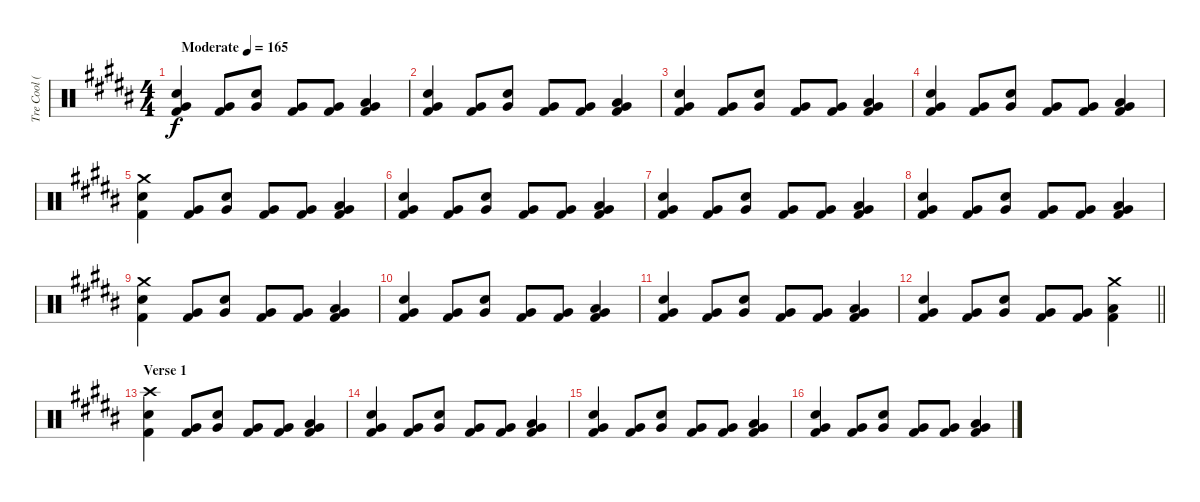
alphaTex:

\track ("Tre Cool (Drums)" "Tre Cool (") {instrument percussion}
\staff {score}
\articulation defaults
\ts (4 4)
\tempo (165 "Moderate")
\clef neutral
\ks b
("Very Low Tom (hit)" "Electric Snare (hit)" "Kick (hit) 2").4{dy f} ("Very Low Tom (hit)" "Kick (hit) 2").8 ("Very Low Tom (hit)" "Electric Snare (hit)").8 ("Very Low Tom (hit)" "Kick (hit) 2").8 ("Very Low Tom (hit)" "Kick (hit) 2").8 ("Very Low Tom (hit)" "Low Tom (hit)" "Kick (hit) 2").4 |
("Very Low Tom (hit)" "Electric Snare (hit)" "Kick (hit) 2").4 ("Very Low Tom (hit)" "Kick (hit) 2").8 ("Very Low Tom (hit)" "Electric Snare (hit)").8 ("Very Low Tom (hit)" "Kick (hit) 2").8 ("Very Low Tom (hit)" "Kick (hit) 2").8 ("Very Low Tom (hit)" "Low Tom (hit)" "Kick (hit) 2").4 |
("Very Low Tom (hit)" "Electric Snare (hit)" "Kick (hit) 2").4 ("Very Low Tom (hit)" "Kick (hit) 2").8 ("Very Low Tom (hit)" "Electric Snare (hit)").8 ("Very Low Tom (hit)" "Kick (hit) 2").8 ("Very Low Tom (hit)" "Kick (hit) 2").8 ("Very Low Tom (hit)" "Low Tom (hit)" "Kick (hit) 2").4 |
("Very Low Tom (hit)" "Electric Snare (hit)" "Kick (hit) 2").4 ("Very Low Tom (hit)" "Kick (hit) 2").8 ("Very Low Tom (hit)" "Electric Snare (hit)").8 ("Very Low Tom (hit)" "Kick (hit) 2").8 ("Very Low Tom (hit)" "Kick (hit) 2").8 ("Very Low Tom (hit)" "Low Tom (hit)" "Kick (hit) 2").4 |
("Crash medium (hit)" "Electric Snare (hit)" "Kick (hit) 2").4 ("Very Low Tom (hit)" "Kick (hit) 2").8 ("Very Low Tom (hit)" "Electric Snare (hit)").8 ("Very Low Tom (hit)" "Kick (hit) 2").8 ("Very Low Tom (hit)" "Kick (hit) 2").8 ("Very Low Tom (hit)" "Low Tom (hit)" "Kick (hit) 2").4 |
("Very Low Tom (hit)" "Electric Snare (hit)" "Kick (hit) 2").4 ("Very Low Tom (hit)" "Kick (hit) 2").8 ("Very Low Tom (hit)" "Electric Snare (hit)").8 ("Very Low Tom (hit)" "Kick (hit) 2").8 ("Very Low Tom (hit)" "Kick (hit) 2").8 ("Very Low Tom (hit)" "Low Tom (hit)" "Kick (hit) 2").4 |
("Very Low Tom (hit)" "Electric Snare (hit)" "Kick (hit) 2").4 ("Very Low Tom (hit)" "Kick (hit) 2").8 ("Very Low Tom (hit)" "Electric Snare (hit)").8 ("Very Low Tom (hit)" "Kick (hit) 2").8 ("Very Low Tom (hit)" "Kick (hit) 2").8 ("Very Low Tom (hit)" "Low Tom (hit)" "Kick (hit) 2").4 |
("Very Low Tom (hit)" "Electric Snare (hit)" "Kick (hit) 2").4 ("Very Low Tom (hit)" "Kick (hit) 2").8 ("Very Low Tom (hit)" "Electric Snare (hit)").8 ("Very Low Tom (hit)" "Kick (hit) 2").8 ("Very Low Tom (hit)" "Kick (hit) 2").8 ("Very Low Tom (hit)" "Low Tom (hit)" "Kick (hit) 2").4 |
("Crash medium (hit)" "Electric Snare (hit)" "Kick (hit) 2").4 ("Very Low Tom (hit)" "Kick (hit) 2").8 ("Very Low Tom (hit)" "Electric Snare (hit)").8 ("Very Low Tom (hit)" "Kick (hit) 2").8 ("Very Low Tom (hit)" "Kick (hit) 2").8 ("Very Low Tom (hit)" "Low Tom (hit)" "Kick (hit) 2").4 |
("Very Low Tom (hit)" "Electric Snare (hit)" "Kick (hit) 2").4 ("Very Low Tom (hit)" "Kick (hit) 2").8 ("Very Low Tom (hit)" "Electric Snare (hit)").8 ("Very Low Tom (hit)" "Kick (hit) 2").8 ("Very Low Tom (hit)" "Kick (hit) 2").8 ("Very Low Tom (hit)" "Low Tom (hit)" "Kick (hit) 2").4 |
("Very Low Tom (hit)" "Electric Snare (hit)" "Kick (hit) 2").4 ("Very Low Tom (hit)" "Kick (hit) 2").8 ("Very Low Tom (hit)" "Electric Snare (hit)").8 ("Very Low Tom (hit)" "Kick (hit) 2").8 ("Very Low Tom (hit)" "Kick (hit) 2").8 ("Very Low Tom (hit)" "Low Tom (hit)" "Kick (hit) 2").4 |
\barLineRight lightlight
("Very Low Tom (hit)" "Electric Snare (hit)" "Kick (hit) 2").4 ("Very Low Tom (hit)" "Kick (hit) 2").8 ("Very Low Tom (hit)" "Electric Snare (hit)").8 ("Very Low Tom (hit)" "Kick (hit) 2").8 ("Very Low Tom (hit)" "Kick (hit) 2").8 ("Crash medium (hit)" "Low Tom (hit)" "Kick (hit) 2").4 |
\section ("" "Verse 1")
("Crash high (hit)" "Electric Snare (hit)" "Kick (hit) 2").4 ("Very Low Tom (hit)" "Kick (hit) 2").8 ("Very Low Tom (hit)" "Electric Snare (hit)").8 ("Very Low Tom (hit)" "Kick (hit) 2").8 ("Very Low Tom (hit)" "Kick (hit) 2").8 ("Very Low Tom (hit)" "Low Tom (hit)" "Kick (hit) 2").4 |
("Very Low Tom (hit)" "Electric Snare (hit)" "Kick (hit) 2").4 ("Very Low Tom (hit)" "Kick (hit) 2").8 ("Very Low Tom (hit)" "Electric Snare (hit)").8 ("Very Low Tom (hit)" "Kick (hit) 2").8 ("Very Low Tom (hit)" "Kick (hit) 2").8 ("Very Low Tom (hit)" "Low Tom (hit)" "Kick (hit) 2").4 |
("Very Low Tom (hit)" "Electric Snare (hit)" "Kick (hit) 2").4 ("Very Low Tom (hit)" "Kick (hit) 2").8 ("Very Low Tom (hit)" "Electric Snare (hit)").8 ("Very Low Tom (hit)" "Kick (hit) 2").8 ("Very Low Tom (hit)" "Kick (hit) 2").8 ("Very Low Tom (hit)" "Low Tom (hit)" "Kick (hit) 2").4 |
("Very Low Tom (hit)" "Electric Snare (hit)" "Kick (hit) 2").4 ("Very Low Tom (hit)" "Kick (hit) 2").8 ("Very Low Tom (hit)" "Electric Snare (hit)").8 ("Very Low Tom (hit)" "Kick (hit) 2").8 ("Very Low Tom (hit)" "Kick (hit) 2").8 ("Very Low Tom (hit)" "Low Tom (hit)" "Kick (hit) 2").4
